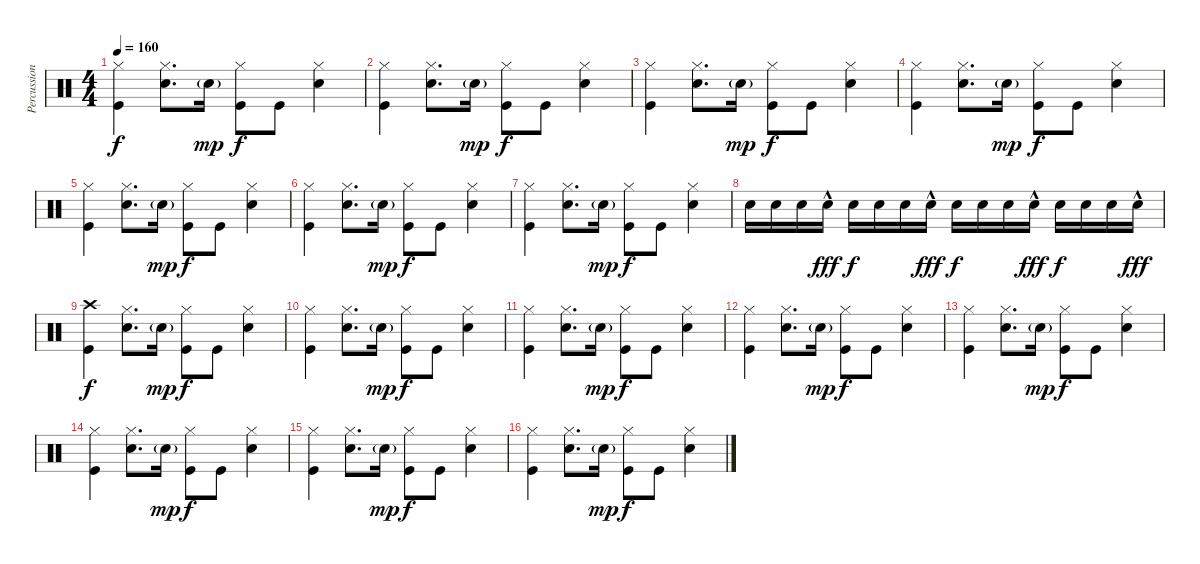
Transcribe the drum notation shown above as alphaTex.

\track ("Percussion" "Percussion") {instrument percussion}
\staff {score}
\articulation defaults
\ts (4 4)
\tempo 160
\clef neutral
\ks c
("Kick (hit)" "Hi-Hat (closed)").4{dy f} ("Snare (hit) 2" "Hi-Hat (closed)").8{d} "Snare (hit) 2"{g}.16{dy mp} ("Kick (hit)" "Hi-Hat (closed)").8{dy f} "Kick (hit)".8 ("Snare (hit) 2" "Hi-Hat (closed)").4 |
("Kick (hit)" "Hi-Hat (closed)").4 ("Snare (hit) 2" "Hi-Hat (closed)").8{d} "Snare (hit) 2"{g}.16{dy mp} ("Kick (hit)" "Hi-Hat (closed)").8{dy f} "Kick (hit)".8 ("Snare (hit) 2" "Hi-Hat (closed)").4 |
("Kick (hit)" "Hi-Hat (closed)").4 ("Snare (hit) 2" "Hi-Hat (closed)").8{d} "Snare (hit) 2"{g}.16{dy mp} ("Kick (hit)" "Hi-Hat (closed)").8{dy f} "Kick (hit)".8 ("Snare (hit) 2" "Hi-Hat (closed)").4 |
("Kick (hit)" "Hi-Hat (closed)").4 ("Snare (hit) 2" "Hi-Hat (closed)").8{d} "Snare (hit) 2"{g}.16{dy mp} ("Kick (hit)" "Hi-Hat (closed)").8{dy f} "Kick (hit)".8 ("Snare (hit) 2" "Hi-Hat (closed)").4 |
("Kick (hit)" "Hi-Hat (closed)").4 ("Snare (hit) 2" "Hi-Hat (closed)").8{d} "Snare (hit) 2"{g}.16{dy mp} ("Kick (hit)" "Hi-Hat (closed)").8{dy f} "Kick (hit)".8 ("Snare (hit) 2" "Hi-Hat (closed)").4 |
("Kick (hit)" "Hi-Hat (closed)").4 ("Snare (hit) 2" "Hi-Hat (closed)").8{d} "Snare (hit) 2"{g}.16{dy mp} ("Kick (hit)" "Hi-Hat (closed)").8{dy f} "Kick (hit)".8 ("Snare (hit) 2" "Hi-Hat (closed)").4 |
("Kick (hit)" "Hi-Hat (closed)").4 ("Snare (hit) 2" "Hi-Hat (closed)").8{d} "Snare (hit) 2"{g}.16{dy mp} ("Kick (hit)" "Hi-Hat (closed)").8{dy f} "Kick (hit)".8 ("Snare (hit) 2" "Hi-Hat (closed)").4 |
"Snare (hit) 2".16 "Snare (hit) 2".16 "Snare (hit) 2".16 "Snare (hit) 2"{hac}.16{dy fff} "Snare (hit) 2".16{dy f} "Snare (hit) 2".16 "Snare (hit) 2".16 "Snare (hit) 2"{hac}.16{dy fff} "Snare (hit) 2".16{dy f} "Snare (hit) 2".16 "Snare (hit) 2".16 "Snare (hit) 2"{hac}.16{dy fff} "Snare (hit) 2".16{dy f} "Snare (hit) 2".16 "Snare (hit) 2".16 "Snare (hit) 2"{hac}.16{dy fff} |
("Kick (hit)" "Crash high (hit)").4{dy f} ("Snare (hit) 2" "Hi-Hat (closed)").8{d} "Snare (hit) 2"{g}.16{dy mp} ("Kick (hit)" "Hi-Hat (closed)").8{dy f} "Kick (hit)".8 ("Snare (hit) 2" "Hi-Hat (closed)").4 |
("Kick (hit)" "Hi-Hat (closed)").4 ("Snare (hit) 2" "Hi-Hat (closed)").8{d} "Snare (hit) 2"{g}.16{dy mp} ("Kick (hit)" "Hi-Hat (closed)").8{dy f} "Kick (hit)".8 ("Snare (hit) 2" "Hi-Hat (closed)").4 |
("Kick (hit)" "Hi-Hat (closed)").4 ("Snare (hit) 2" "Hi-Hat (closed)").8{d} "Snare (hit) 2"{g}.16{dy mp} ("Kick (hit)" "Hi-Hat (closed)").8{dy f} "Kick (hit)".8 ("Snare (hit) 2" "Hi-Hat (closed)").4 |
("Kick (hit)" "Hi-Hat (closed)").4 ("Snare (hit) 2" "Hi-Hat (closed)").8{d} "Snare (hit) 2"{g}.16{dy mp} ("Kick (hit)" "Hi-Hat (closed)").8{dy f} "Kick (hit)".8 ("Snare (hit) 2" "Hi-Hat (closed)").4 |
("Kick (hit)" "Hi-Hat (closed)").4 ("Snare (hit) 2" "Hi-Hat (closed)").8{d} "Snare (hit) 2"{g}.16{dy mp} ("Kick (hit)" "Hi-Hat (closed)").8{dy f} "Kick (hit)".8 ("Snare (hit) 2" "Hi-Hat (closed)").4 |
("Kick (hit)" "Hi-Hat (closed)").4 ("Snare (hit) 2" "Hi-Hat (closed)").8{d} "Snare (hit) 2"{g}.16{dy mp} ("Kick (hit)" "Hi-Hat (closed)").8{dy f} "Kick (hit)".8 ("Snare (hit) 2" "Hi-Hat (closed)").4 |
("Kick (hit)" "Hi-Hat (closed)").4 ("Snare (hit) 2" "Hi-Hat (closed)").8{d} "Snare (hit) 2"{g}.16{dy mp} ("Kick (hit)" "Hi-Hat (closed)").8{dy f} "Kick (hit)".8 ("Snare (hit) 2" "Hi-Hat (closed)").4 |
("Kick (hit)" "Hi-Hat (closed)").4 ("Snare (hit) 2" "Hi-Hat (closed)").8{d} "Snare (hit) 2"{g}.16{dy mp} ("Kick (hit)" "Hi-Hat (closed)").8{dy f} "Kick (hit)".8 ("Snare (hit) 2" "Hi-Hat (closed)").4
